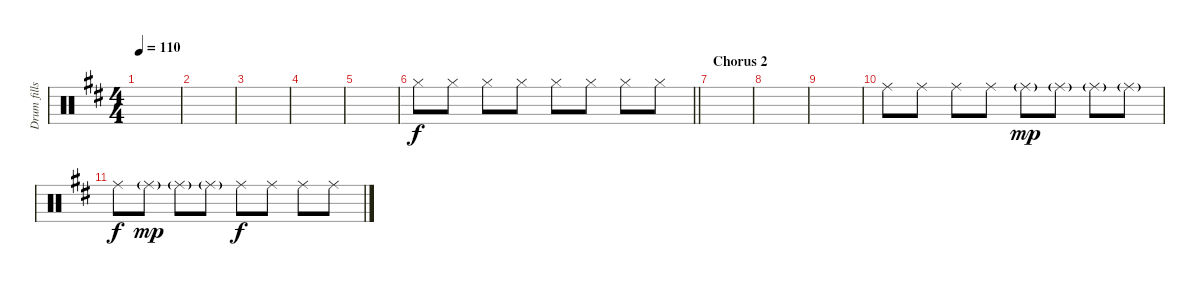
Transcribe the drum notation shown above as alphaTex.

\track ("Drum fills" "Drum fills") {instrument percussion}
\staff {score}
\articulation defaults
\ts (4 4)
\tempo 110
\clef neutral
\ks d
|
|
|
|
|
\barLineRight lightlight "Hi-Hat (closed)".8 "Hi-Hat (closed)".8 "Hi-Hat (closed)".8 "Hi-Hat (closed)".8 "Hi-Hat (closed)".8 "Hi-Hat (closed)".8 "Hi-Hat (closed)".8 "Hi-Hat (closed)".8
|
\section ("" "Chorus 2")
|
|
|
"Ride (middle)".8 "Ride (middle)".8 "Ride (middle)".8 "Ride (middle)".8 "Ride (middle)"{g}.8{dy mp} "Ride (middle)"{g}.8 "Ride (middle)"{g}.8 "Ride (middle)"{g}.8 |
"Ride (middle)".8{dy f} "Ride (middle)"{g}.8{dy mp} "Ride (middle)"{g}.8 "Ride (middle)"{g}.8 "Ride (middle)".8{dy f} "Ride (middle)".8 "Ride (middle)".8 "Ride (middle)".8
